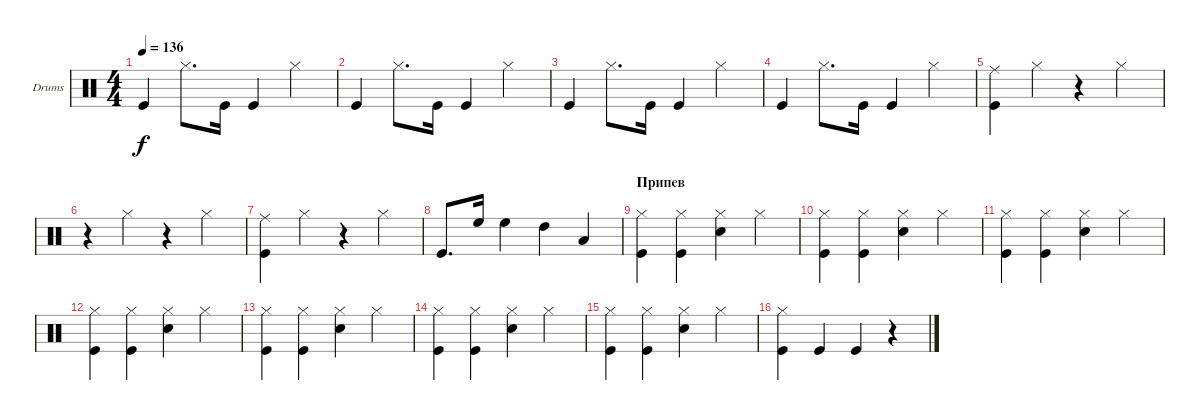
\defaultSystemsLayout 4
\bracketExtendMode groupsimilarinstruments
\firstSystemTrackNameOrientation horizontal
\otherSystemsTrackNameOrientation horizontal
\track ("Drumkit" "Drums") {instrument percussion}
\staff {score}
\articulation defaults
\ts (4 4)
\tempo 136
\clef neutral
\ks c "Kick (hit)".4{dy f} "Hi-Hat (closed)".8{d} "Kick (hit)".16 "Kick (hit)".4 "Hi-Hat (closed)".4
|
"Kick (hit)".4 "Hi-Hat (closed)".8{d} "Kick (hit)".16 "Kick (hit)".4 "Hi-Hat (closed)".4 |
"Kick (hit)".4 "Hi-Hat (closed)".8{d} "Kick (hit)".16 "Kick (hit)".4 "Hi-Hat (closed)".4 |
"Kick (hit)".4 "Hi-Hat (closed)".8{d} "Kick (hit)".16 "Kick (hit)".4 "Hi-Hat (closed)".4 |
("Ride (middle)" "Kick (hit)").4 "Hi-Hat (closed)".4 r.4 "Hi-Hat (closed)".4 |
\scale
0.379922 r.4 "Hi-Hat (closed)".4 r.4 "Hi-Hat (closed)".4 |
\scale
0.379206 ("Ride (middle)" "Kick (hit)").4 "Hi-Hat (closed)".4 r.4 "Hi-Hat (closed)".4 |
\scale
0.240061 "Kick (hit)".8{d} "High Floor Tom (hit)".16 "High Floor Tom (hit)".4 "High Tom (hit)".4 "Low Tom (hit)".4 |
\section ("" "Припев")
\scale
0.252857 ("Hi-Hat (closed)" "Kick (hit)").4 ("Hi-Hat (closed)" "Kick (hit)").4 ("Snare (hit) 2" "Hi-Hat (closed)").4 "Hi-Hat (closed)".4 |
\scale
0.335714 ("Hi-Hat (closed)" "Kick (hit)").4 ("Hi-Hat (closed)" "Kick (hit)").4 ("Snare (hit) 2" "Hi-Hat (closed)").4 "Hi-Hat (closed)".4 |
\scale
0.411429 ("Hi-Hat (closed)" "Kick (hit)").4 ("Hi-Hat (closed)" "Kick (hit)").4 ("Snare (hit) 2" "Hi-Hat (closed)").4 "Hi-Hat (closed)".4 |
("Hi-Hat (closed)" "Kick (hit)").4 ("Hi-Hat (closed)" "Kick (hit)").4 ("Snare (hit) 2" "Hi-Hat (closed)").4 "Hi-Hat (closed)".4 |
("Hi-Hat (closed)" "Kick (hit)").4 ("Hi-Hat (closed)" "Kick (hit)").4 ("Snare (hit) 2" "Hi-Hat (closed)").4 "Hi-Hat (closed)".4 |
("Hi-Hat (closed)" "Kick (hit)").4 ("Hi-Hat (closed)" "Kick (hit)").4 ("Snare (hit) 2" "Hi-Hat (closed)").4 "Hi-Hat (closed)".4 |
("Hi-Hat (closed)" "Kick (hit)").4 ("Hi-Hat (closed)" "Kick (hit)").4 ("Snare (hit) 2" "Hi-Hat (closed)").4 "Hi-Hat (closed)".4 |
("Kick (hit)" "Hi-Hat (closed)").4 "Kick (hit)".4 "Kick (hit)".4 r.4
